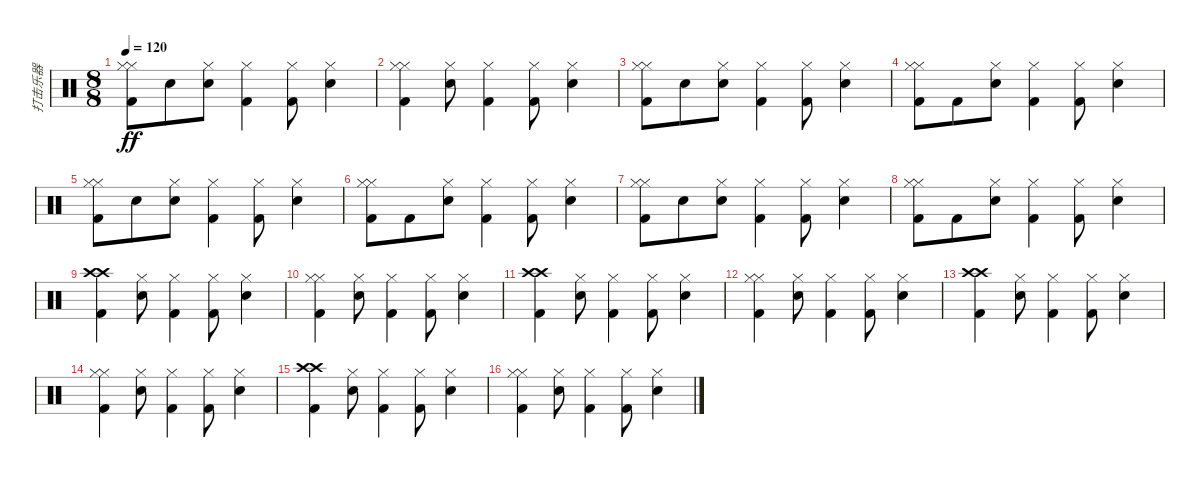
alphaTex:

\track ("打击乐器" "打击乐器") {instrument percussion}
\staff {score}
\articulation defaults
\ts (8 8)
\tempo 120
\clef neutral
\ks c
("Hi-Hat (closed)" "Kick (hit) 2" "Hi-Hat (closed)").8{dy ff} "Snare (hit) 2".8 ("Snare (hit) 2" "Hi-Hat (closed)").8 ("Kick (hit) 2" "Hi-Hat (closed)").4 ("Kick (hit) 2" "Hi-Hat (closed)").8 ("Snare (hit) 2" "Hi-Hat (closed)").4 |
("Hi-Hat (closed)" "Kick (hit) 2" "Hi-Hat (closed)").4 ("Snare (hit) 2" "Hi-Hat (closed)").8 ("Kick (hit) 2" "Hi-Hat (closed)").4 ("Kick (hit) 2" "Hi-Hat (closed)").8 ("Snare (hit) 2" "Hi-Hat (closed)").4 |
("Hi-Hat (closed)" "Kick (hit) 2" "Hi-Hat (closed)").8 "Snare (hit) 2".8 ("Snare (hit) 2" "Hi-Hat (closed)").8 ("Kick (hit) 2" "Hi-Hat (closed)").4 ("Kick (hit) 2" "Hi-Hat (closed)").8 ("Snare (hit) 2" "Hi-Hat (closed)").4 |
("Hi-Hat (closed)" "Kick (hit) 2" "Hi-Hat (closed)").8 "Kick (hit) 2".8 ("Snare (hit) 2" "Hi-Hat (closed)").8 ("Kick (hit) 2" "Hi-Hat (closed)").4 ("Kick (hit) 2" "Hi-Hat (closed)").8 ("Snare (hit) 2" "Hi-Hat (closed)").4 |
("Hi-Hat (closed)" "Kick (hit) 2" "Hi-Hat (closed)").8 "Snare (hit) 2".8 ("Snare (hit) 2" "Hi-Hat (closed)").8 ("Kick (hit) 2" "Hi-Hat (closed)").4 ("Kick (hit) 2" "Hi-Hat (closed)").8 ("Snare (hit) 2" "Hi-Hat (closed)").4 |
("Hi-Hat (closed)" "Kick (hit) 2" "Hi-Hat (closed)").8 "Kick (hit) 2".8 ("Snare (hit) 2" "Hi-Hat (closed)").8 ("Kick (hit) 2" "Hi-Hat (closed)").4 ("Kick (hit) 2" "Hi-Hat (closed)").8 ("Snare (hit) 2" "Hi-Hat (closed)").4 |
("Hi-Hat (closed)" "Kick (hit) 2" "Hi-Hat (closed)").8 "Snare (hit) 2".8 ("Snare (hit) 2" "Hi-Hat (closed)").8 ("Kick (hit) 2" "Hi-Hat (closed)").4 ("Kick (hit) 2" "Hi-Hat (closed)").8 ("Snare (hit) 2" "Hi-Hat (closed)").4 |
("Hi-Hat (closed)" "Kick (hit) 2" "Hi-Hat (closed)").8 "Kick (hit) 2".8 ("Snare (hit) 2" "Hi-Hat (closed)").8 ("Kick (hit) 2" "Hi-Hat (closed)").4 ("Kick (hit) 2" "Hi-Hat (closed)").8 ("Snare (hit) 2" "Hi-Hat (closed)").4 |
("Crash high (hit)" "Kick (hit) 2" "Crash high (hit)").4 ("Snare (hit) 2" "Hi-Hat (closed)").8 ("Kick (hit) 2" "Hi-Hat (closed)").4 ("Kick (hit) 2" "Hi-Hat (closed)").8 ("Snare (hit) 2" "Hi-Hat (closed)").4 |
("Hi-Hat (closed)" "Kick (hit) 2" "Hi-Hat (closed)").4 ("Snare (hit) 2" "Hi-Hat (closed)").8 ("Kick (hit) 2" "Hi-Hat (closed)").4 ("Kick (hit) 2" "Hi-Hat (closed)").8 ("Snare (hit) 2" "Hi-Hat (closed)").4 |
("Crash high (hit)" "Kick (hit) 2" "Crash high (hit)").4 ("Snare (hit) 2" "Hi-Hat (closed)").8 ("Kick (hit) 2" "Hi-Hat (closed)").4 ("Kick (hit) 2" "Hi-Hat (closed)").8 ("Snare (hit) 2" "Hi-Hat (closed)").4 |
("Hi-Hat (closed)" "Kick (hit) 2" "Hi-Hat (closed)").4 ("Snare (hit) 2" "Hi-Hat (closed)").8 ("Kick (hit) 2" "Hi-Hat (closed)").4 ("Kick (hit) 2" "Hi-Hat (closed)").8 ("Snare (hit) 2" "Hi-Hat (closed)").4 |
("Crash high (hit)" "Kick (hit) 2" "Crash high (hit)").4 ("Snare (hit) 2" "Hi-Hat (closed)").8 ("Kick (hit) 2" "Hi-Hat (closed)").4 ("Kick (hit) 2" "Hi-Hat (closed)").8 ("Snare (hit) 2" "Hi-Hat (closed)").4 |
("Hi-Hat (closed)" "Kick (hit) 2" "Hi-Hat (closed)").4 ("Snare (hit) 2" "Hi-Hat (closed)").8 ("Kick (hit) 2" "Hi-Hat (closed)").4 ("Kick (hit) 2" "Hi-Hat (closed)").8 ("Snare (hit) 2" "Hi-Hat (closed)").4 |
("Crash high (hit)" "Kick (hit) 2" "Crash high (hit)").4 ("Snare (hit) 2" "Hi-Hat (closed)").8 ("Kick (hit) 2" "Hi-Hat (closed)").4 ("Kick (hit) 2" "Hi-Hat (closed)").8 ("Snare (hit) 2" "Hi-Hat (closed)").4 |
("Hi-Hat (closed)" "Kick (hit) 2" "Hi-Hat (closed)").4 ("Snare (hit) 2" "Hi-Hat (closed)").8 ("Kick (hit) 2" "Hi-Hat (closed)").4 ("Kick (hit) 2" "Hi-Hat (closed)").8 ("Snare (hit) 2" "Hi-Hat (closed)").4
